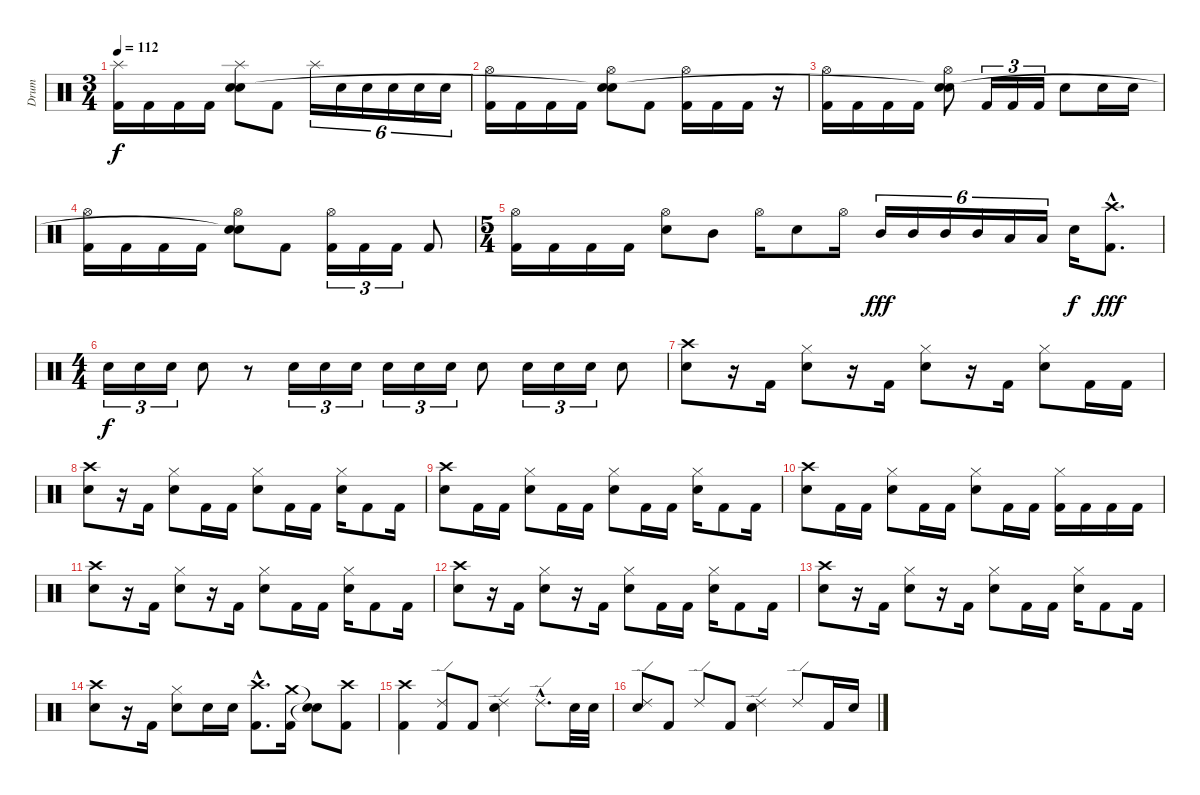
\track ("Drum" "Drum") {instrument percussion}
\staff {score}
\articulation defaults
\ts (3 4)
\tempo 112
\clef neutral
\ks c
("Splash (hit)" "Kick (hit) 2").16{dy f} "Kick (hit) 2".16 "Kick (hit) 2".16 "Kick (hit) 2".16 ("Splash (hit)" "Electric Snare (hit)" "Snare (hit)"{t}).8 "Kick (hit) 2".8 "Splash (hit)".16{tu (6 4)} "Electric Snare (hit)".16{tu (6 4)} "Electric Snare (hit)".16{tu (6 4)} "Electric Snare (hit)".16{tu (6 4)} "Electric Snare (hit)".16{tu (6 4)} "Electric Snare (hit)".16{tu (6 4)} |
("Hi-Hat (open)" "Kick (hit) 2").16 "Kick (hit) 2".16 "Kick (hit) 2".16 "Kick (hit) 2".16 ("Hi-Hat (open)" "Electric Snare (hit)" "Snare (hit)"{t}).8 "Kick (hit) 2".8 ("Hi-Hat (open)" "Kick (hit) 2").16 "Kick (hit) 2".16 "Kick (hit) 2".16 r.16 |
("Hi-Hat (open)" "Kick (hit) 2").16 "Kick (hit) 2".16 "Kick (hit) 2".16 "Kick (hit) 2".16 ("Hi-Hat (open)" "Electric Snare (hit)" "Snare (hit)"{t}).8 "Kick (hit) 2".16{tu (3 2)} "Kick (hit) 2".16{tu (3 2)} "Kick (hit) 2".16{tu (3 2)} "Electric Snare (hit)".8 "Electric Snare (hit)".16 "Electric Snare (hit)".16 |
("Hi-Hat (open)" "Kick (hit) 2").16 "Kick (hit) 2".16 "Kick (hit) 2".16 "Kick (hit) 2".16 ("Hi-Hat (open)" "Electric Snare (hit)" "Snare (hit)"{t}).8 "Kick (hit) 2".8 ("Hi-Hat (open)" "Kick (hit) 2").16{tu (3 2)} "Kick (hit) 2".16{tu (3 2)} "Kick (hit) 2".16{tu (3 2)} "Kick (hit) 2".8 |
\ts (5 4)
("Hi-Hat (open)" "Kick (hit) 2").16 "Kick (hit) 2".16 "Kick (hit) 2".16 "Kick (hit) 2".16 ("Hi-Hat (open)" "Electric Snare (hit)").8 "Mid Tom (hit)".8 "Hi-Hat (open)".16 "Electric Snare (hit)".8 "Hi-Hat (open)".16 "Mid Tom (hit)".16{tu (6 4) dy fff} "Mid Tom (hit)".16{tu (6 4)} "Mid Tom (hit)".16{tu (6 4)} "Mid Tom (hit)".16{tu (6 4)} "Low Tom (hit)".16{tu (6 4)} "Low Tom (hit)".16{tu (6 4)} "Electric Snare (hit)".16{dy f} ("Crash high (hit)"{hac} "Kick (hit) 2"{hac}).8{d dy fff} |
\ts (4 4)
"Electric Snare (hit)".16{tu (3 2) dy f} "Electric Snare (hit)".16{tu (3 2)} "Electric Snare (hit)".16{tu (3 2)} "Electric Snare (hit)".8 r.8 "Electric Snare (hit)".16{tu (3 2)} "Electric Snare (hit)".16{tu (3 2)} "Electric Snare (hit)".16{tu (3 2)} "Electric Snare (hit)".16{tu (3 2)} "Electric Snare (hit)".16{tu (3 2)} "Electric Snare (hit)".16{tu (3 2)} "Electric Snare (hit)".8 "Electric Snare (hit)".16{tu (3 2)} "Electric Snare (hit)".16{tu (3 2)} "Electric Snare (hit)".16{tu (3 2)} "Electric Snare (hit)".8 |
("Crash high (hit)" "Electric Snare (hit)").8 r.16 "Kick (hit) 2".16 ("Hi-Hat (closed)" "Electric Snare (hit)").8 r.16 "Kick (hit) 2".16 ("Hi-Hat (closed)" "Electric Snare (hit)").8 r.16 "Kick (hit) 2".16 ("Hi-Hat (closed)" "Electric Snare (hit)").8 "Kick (hit) 2".16 "Kick (hit) 2".16 |
("Crash high (hit)" "Electric Snare (hit)").8 r.16 "Kick (hit) 2".16 ("Hi-Hat (closed)" "Electric Snare (hit)").8 "Kick (hit) 2".16 "Kick (hit) 2".16 ("Hi-Hat (closed)" "Electric Snare (hit)").8 "Kick (hit) 2".16 "Kick (hit) 2".16 ("Hi-Hat (closed)" "Electric Snare (hit)").16 "Kick (hit) 2".8 "Kick (hit) 2".16 |
("Crash high (hit)" "Electric Snare (hit)").8 "Kick (hit) 2".16 "Kick (hit) 2".16 ("Hi-Hat (closed)" "Electric Snare (hit)").8 "Kick (hit) 2".16 "Kick (hit) 2".16 ("Hi-Hat (closed)" "Electric Snare (hit)").8 "Kick (hit) 2".16 "Kick (hit) 2".16 ("Hi-Hat (closed)" "Electric Snare (hit)").16 "Kick (hit) 2".8 "Kick (hit) 2".16 |
("Crash high (hit)" "Electric Snare (hit)").8 "Kick (hit) 2".16 "Kick (hit) 2".16 ("Hi-Hat (closed)" "Electric Snare (hit)").8 "Kick (hit) 2".16 "Kick (hit) 2".16 ("Hi-Hat (closed)" "Electric Snare (hit)").8 "Kick (hit) 2".16 "Kick (hit) 2".16 ("Hi-Hat (closed)" "Kick (hit) 2").16 "Kick (hit) 2".16 "Kick (hit) 2".16 "Kick (hit) 2".16 |
("Crash high (hit)" "Electric Snare (hit)").8 r.16 "Kick (hit) 2".16 ("Hi-Hat (closed)" "Electric Snare (hit)").8 r.16 "Kick (hit) 2".16 ("Hi-Hat (closed)" "Electric Snare (hit)").8 "Kick (hit) 2".16 "Kick (hit) 2".16 ("Hi-Hat (closed)" "Electric Snare (hit)").16 "Kick (hit) 2".8 "Kick (hit) 2".16 |
("Crash high (hit)" "Electric Snare (hit)").8 r.16 "Kick (hit) 2".16 ("Hi-Hat (closed)" "Electric Snare (hit)").8 r.16 "Kick (hit) 2".16 ("Hi-Hat (closed)" "Electric Snare (hit)").8 "Kick (hit) 2".16 "Kick (hit) 2".16 ("Hi-Hat (closed)" "Electric Snare (hit)").16 "Kick (hit) 2".8 "Kick (hit) 2".16 |
("Crash high (hit)" "Electric Snare (hit)").8 r.16 "Kick (hit) 2".16 ("Hi-Hat (closed)" "Electric Snare (hit)").8 r.16 "Kick (hit) 2".16 ("Hi-Hat (closed)" "Electric Snare (hit)").8 "Kick (hit) 2".16 "Kick (hit) 2".16 ("Hi-Hat (closed)" "Electric Snare (hit)").16 "Kick (hit) 2".8 "Kick (hit) 2".16 |
("Crash high (hit)" "Electric Snare (hit)").8 r.16 "Kick (hit) 2".16 ("Hi-Hat (closed)" "Electric Snare (hit)").8 "Electric Snare (hit)".16 "Electric Snare (hit)".16 ("Crash high (hit)"{hac} "Kick (hit) 2"{hac}).8{d} ("Crash medium (hit)" "Kick (hit) 2").16 ("Snare (hit)"{t} "Snare (hit)"{t}).8 ("Crash high (hit)" "Kick (hit) 2").8 |
("Crash high (hit)" "Kick (hit) 2").4 ("Ride (edge) 2" "Kick (hit) 2").8 "Kick (hit) 2".8 ("Ride (edge) 2" "Electric Snare (hit)").4 "Ride (edge) 2"{hac}.8{d} "Electric Snare (hit)".32 "Electric Snare (hit)".32 |
("Ride (edge) 2" "Electric Snare (hit)").8 "Kick (hit) 2".8 "Ride (edge) 2".8 "Kick (hit) 2".8 ("Ride (edge) 2" "Electric Snare (hit)").4 "Ride (edge) 2".8 "Kick (hit) 2".16 "Electric Snare (hit)".16
